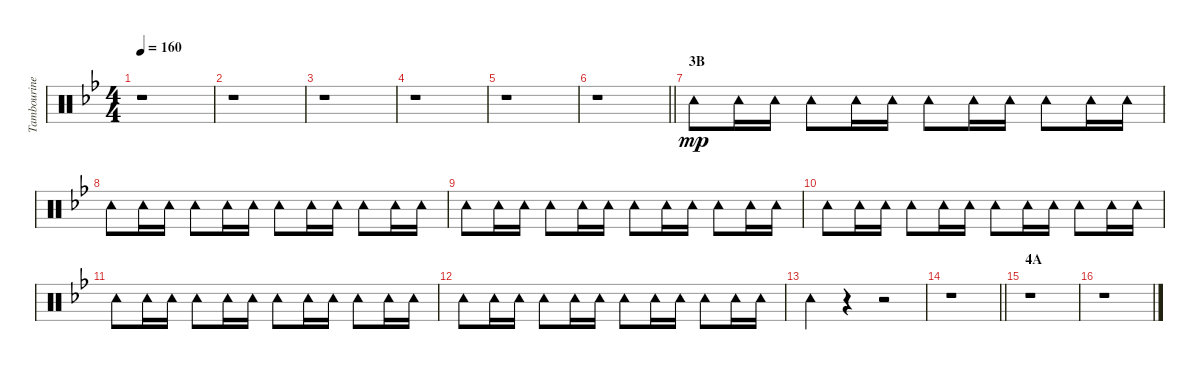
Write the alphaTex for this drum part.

\track ("Tambourine" "Tambourine") {instrument percussion}
\staff {score}
\articulation defaults
\ts (4 4)
\tempo 160
\clef neutral
\ks bb
r.1{dy mp} |
r.1 |
r.1 |
r.1 |
r.1 |
\barLineRight lightlight
r.1 |
\section ("" "3B")
"Tambourine (hit)".8 "Tambourine (hit)".16 "Tambourine (hit)".16 "Tambourine (hit)".8 "Tambourine (hit)".16 "Tambourine (hit)".16 "Tambourine (hit)".8 "Tambourine (hit)".16 "Tambourine (hit)".16 "Tambourine (hit)".8 "Tambourine (hit)".16 "Tambourine (hit)".16 |
"Tambourine (hit)".8 "Tambourine (hit)".16 "Tambourine (hit)".16 "Tambourine (hit)".8 "Tambourine (hit)".16 "Tambourine (hit)".16 "Tambourine (hit)".8 "Tambourine (hit)".16 "Tambourine (hit)".16 "Tambourine (hit)".8 "Tambourine (hit)".16 "Tambourine (hit)".16 |
"Tambourine (hit)".8 "Tambourine (hit)".16 "Tambourine (hit)".16 "Tambourine (hit)".8 "Tambourine (hit)".16 "Tambourine (hit)".16 "Tambourine (hit)".8 "Tambourine (hit)".16 "Tambourine (hit)".16 "Tambourine (hit)".8 "Tambourine (hit)".16 "Tambourine (hit)".16 |
"Tambourine (hit)".8 "Tambourine (hit)".16 "Tambourine (hit)".16 "Tambourine (hit)".8 "Tambourine (hit)".16 "Tambourine (hit)".16 "Tambourine (hit)".8 "Tambourine (hit)".16 "Tambourine (hit)".16 "Tambourine (hit)".8 "Tambourine (hit)".16 "Tambourine (hit)".16 |
"Tambourine (hit)".8 "Tambourine (hit)".16 "Tambourine (hit)".16 "Tambourine (hit)".8 "Tambourine (hit)".16 "Tambourine (hit)".16 "Tambourine (hit)".8 "Tambourine (hit)".16 "Tambourine (hit)".16 "Tambourine (hit)".8 "Tambourine (hit)".16 "Tambourine (hit)".16 |
"Tambourine (hit)".8 "Tambourine (hit)".16 "Tambourine (hit)".16 "Tambourine (hit)".8 "Tambourine (hit)".16 "Tambourine (hit)".16 "Tambourine (hit)".8 "Tambourine (hit)".16 "Tambourine (hit)".16 "Tambourine (hit)".8 "Tambourine (hit)".16 "Tambourine (hit)".16 |
"Tambourine (hit)".4 r.4 r.2 |
\barLineRight lightlight
r.1 |
\section ("" "4A")
r.1 |
r.1
